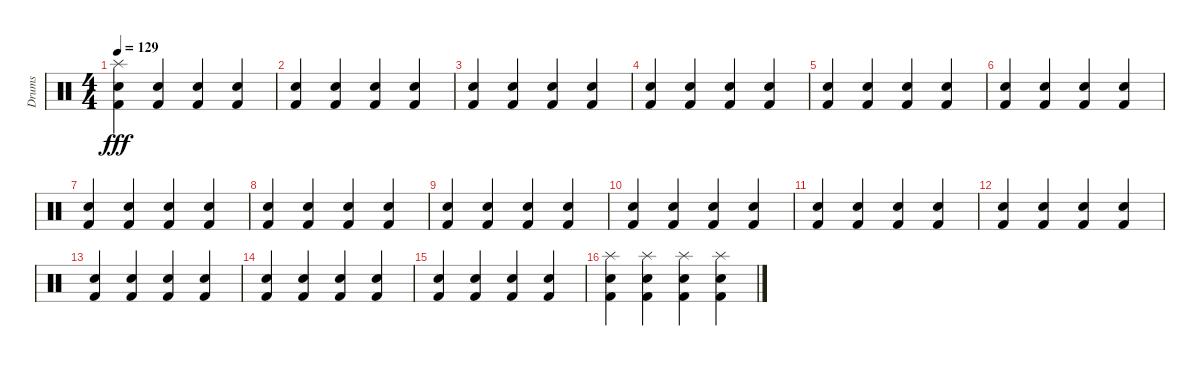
\track ("Drums" "Drums") {instrument percussion}
\staff {score}
\articulation defaults
\ts (4 4)
\tempo 129
\clef neutral
\ks c
("Splash (hit)" "Hand Clap (hit)" "Kick (hit) 2").4{dy fff} ("Hand Clap (hit)" "Kick (hit) 2").4 ("Hand Clap (hit)" "Kick (hit) 2").4 ("Hand Clap (hit)" "Kick (hit) 2").4 |
("Hand Clap (hit)" "Kick (hit) 2").4 ("Hand Clap (hit)" "Kick (hit) 2").4 ("Hand Clap (hit)" "Kick (hit) 2").4 ("Hand Clap (hit)" "Kick (hit) 2").4 |
("Hand Clap (hit)" "Kick (hit) 2").4 ("Hand Clap (hit)" "Kick (hit) 2").4 ("Hand Clap (hit)" "Kick (hit) 2").4 ("Hand Clap (hit)" "Kick (hit) 2").4 |
("Hand Clap (hit)" "Kick (hit) 2").4 ("Hand Clap (hit)" "Kick (hit) 2").4 ("Hand Clap (hit)" "Kick (hit) 2").4 ("Hand Clap (hit)" "Kick (hit) 2").4 |
("Hand Clap (hit)" "Kick (hit) 2").4 ("Hand Clap (hit)" "Kick (hit) 2").4 ("Hand Clap (hit)" "Kick (hit) 2").4 ("Hand Clap (hit)" "Kick (hit) 2").4 |
("Hand Clap (hit)" "Kick (hit) 2").4 ("Hand Clap (hit)" "Kick (hit) 2").4 ("Hand Clap (hit)" "Kick (hit) 2").4 ("Hand Clap (hit)" "Kick (hit) 2").4 |
("Hand Clap (hit)" "Kick (hit) 2").4 ("Hand Clap (hit)" "Kick (hit) 2").4 ("Hand Clap (hit)" "Kick (hit) 2").4 ("Hand Clap (hit)" "Kick (hit) 2").4 |
("Hand Clap (hit)" "Kick (hit) 2").4 ("Hand Clap (hit)" "Kick (hit) 2").4 ("Hand Clap (hit)" "Kick (hit) 2").4 ("Hand Clap (hit)" "Kick (hit) 2").4 |
("Hand Clap (hit)" "Kick (hit) 2").4 ("Hand Clap (hit)" "Kick (hit) 2").4 ("Hand Clap (hit)" "Kick (hit) 2").4 ("Hand Clap (hit)" "Kick (hit) 2").4 |
("Hand Clap (hit)" "Kick (hit) 2").4 ("Hand Clap (hit)" "Kick (hit) 2").4 ("Hand Clap (hit)" "Kick (hit) 2").4 ("Hand Clap (hit)" "Kick (hit) 2").4 |
("Hand Clap (hit)" "Kick (hit) 2").4 ("Hand Clap (hit)" "Kick (hit) 2").4 ("Hand Clap (hit)" "Kick (hit) 2").4 ("Hand Clap (hit)" "Kick (hit) 2").4 |
("Hand Clap (hit)" "Kick (hit) 2").4 ("Hand Clap (hit)" "Kick (hit) 2").4 ("Hand Clap (hit)" "Kick (hit) 2").4 ("Hand Clap (hit)" "Kick (hit) 2").4 |
("Hand Clap (hit)" "Kick (hit) 2").4 ("Hand Clap (hit)" "Kick (hit) 2").4 ("Hand Clap (hit)" "Kick (hit) 2").4 ("Hand Clap (hit)" "Kick (hit) 2").4 |
("Hand Clap (hit)" "Kick (hit) 2").4 ("Hand Clap (hit)" "Kick (hit) 2").4 ("Hand Clap (hit)" "Kick (hit) 2").4 ("Hand Clap (hit)" "Kick (hit) 2").4 |
("Hand Clap (hit)" "Kick (hit) 2").4 ("Hand Clap (hit)" "Kick (hit) 2").4 ("Hand Clap (hit)" "Kick (hit) 2").4 ("Hand Clap (hit)" "Kick (hit) 2").4 |
("Splash (hit)" "Hand Clap (hit)" "Kick (hit) 2").4 ("Splash (hit)" "Hand Clap (hit)" "Kick (hit) 2").4 ("Splash (hit)" "Hand Clap (hit)" "Kick (hit) 2").4 ("Splash (hit)" "Hand Clap (hit)" "Kick (hit) 2").4
